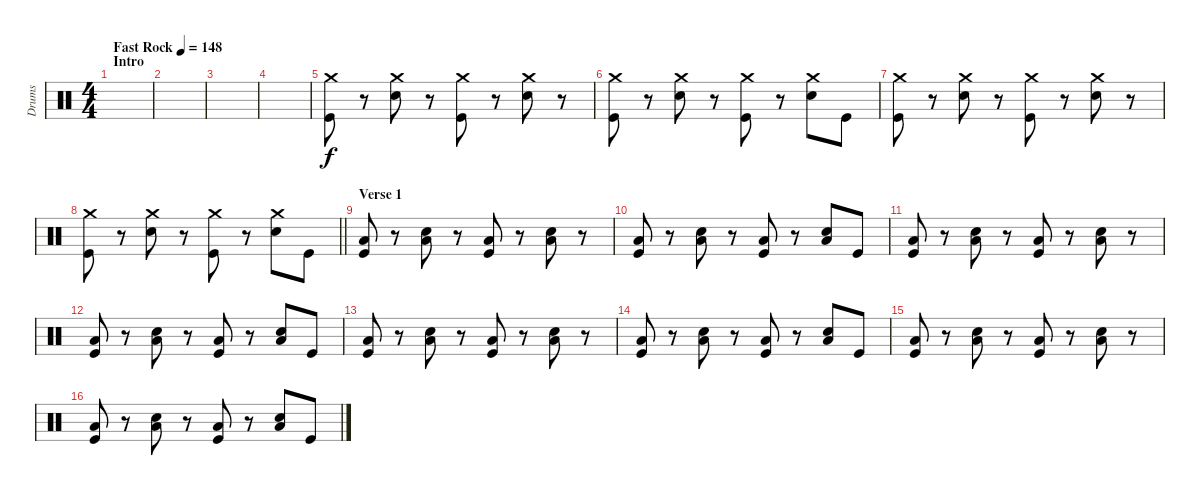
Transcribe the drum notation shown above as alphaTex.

\track ("Drums" "Drums") {instrument percussion}
\staff {score}
\articulation defaults
\ts (4 4)
\section ("" "Intro")
\tempo (148 "Fast Rock")
\clef neutral
\ks c
|
|
|
|
("Crash medium (hit)" "Kick (hit)").8 r.8 ("Crash medium (hit)" "Electric Snare (hit)").8 r.8 ("Crash medium (hit)" "Kick (hit)").8 r.8 ("Crash medium (hit)" "Electric Snare (hit)").8 r.8 |
("Crash medium (hit)" "Kick (hit)").8 r.8 ("Crash medium (hit)" "Electric Snare (hit)").8 r.8 ("Crash medium (hit)" "Kick (hit)").8 r.8 ("Crash medium (hit)" "Electric Snare (hit)").8 "Kick (hit)".8 |
("Crash medium (hit)" "Kick (hit)").8 r.8 ("Crash medium (hit)" "Electric Snare (hit)").8 r.8 ("Crash medium (hit)" "Kick (hit)").8 r.8 ("Crash medium (hit)" "Electric Snare (hit)").8 r.8 |
\barLineRight lightlight
("Crash medium (hit)" "Kick (hit)").8 r.8 ("Crash medium (hit)" "Electric Snare (hit)").8 r.8 ("Crash medium (hit)" "Kick (hit)").8 r.8 ("Crash medium (hit)" "Electric Snare (hit)").8 "Kick (hit)".8 |
\section ("" "Verse 1")
("Low Tom (hit)" "Kick (hit)").8 r.8 ("Low Tom (hit)" "Electric Snare (hit)").8 r.8 ("Low Tom (hit)" "Kick (hit)").8 r.8 ("Low Tom (hit)" "Electric Snare (hit)").8 r.8 |
("Low Tom (hit)" "Kick (hit)").8 r.8 ("Low Tom (hit)" "Electric Snare (hit)").8 r.8 ("Low Tom (hit)" "Kick (hit)").8 r.8 ("Low Tom (hit)" "Electric Snare (hit)").8 "Kick (hit)".8 |
("Low Tom (hit)" "Kick (hit)").8 r.8 ("Low Tom (hit)" "Electric Snare (hit)").8 r.8 ("Low Tom (hit)" "Kick (hit)").8 r.8 ("Low Tom (hit)" "Electric Snare (hit)").8 r.8 |
("Low Tom (hit)" "Kick (hit)").8 r.8 ("Low Tom (hit)" "Electric Snare (hit)").8 r.8 ("Low Tom (hit)" "Kick (hit)").8 r.8 ("Low Tom (hit)" "Electric Snare (hit)").8 "Kick (hit)".8 |
("Low Tom (hit)" "Kick (hit)").8 r.8 ("Low Tom (hit)" "Electric Snare (hit)").8 r.8 ("Low Tom (hit)" "Kick (hit)").8 r.8 ("Low Tom (hit)" "Electric Snare (hit)").8 r.8 |
("Low Tom (hit)" "Kick (hit)").8 r.8 ("Low Tom (hit)" "Electric Snare (hit)").8 r.8 ("Low Tom (hit)" "Kick (hit)").8 r.8 ("Low Tom (hit)" "Electric Snare (hit)").8 "Kick (hit)".8 |
("Low Tom (hit)" "Kick (hit)").8 r.8 ("Low Tom (hit)" "Electric Snare (hit)").8 r.8 ("Low Tom (hit)" "Kick (hit)").8 r.8 ("Low Tom (hit)" "Electric Snare (hit)").8 r.8 |
("Low Tom (hit)" "Kick (hit)").8 r.8 ("Low Tom (hit)" "Electric Snare (hit)").8 r.8 ("Low Tom (hit)" "Kick (hit)").8 r.8 ("Low Tom (hit)" "Electric Snare (hit)").8 "Kick (hit)".8
